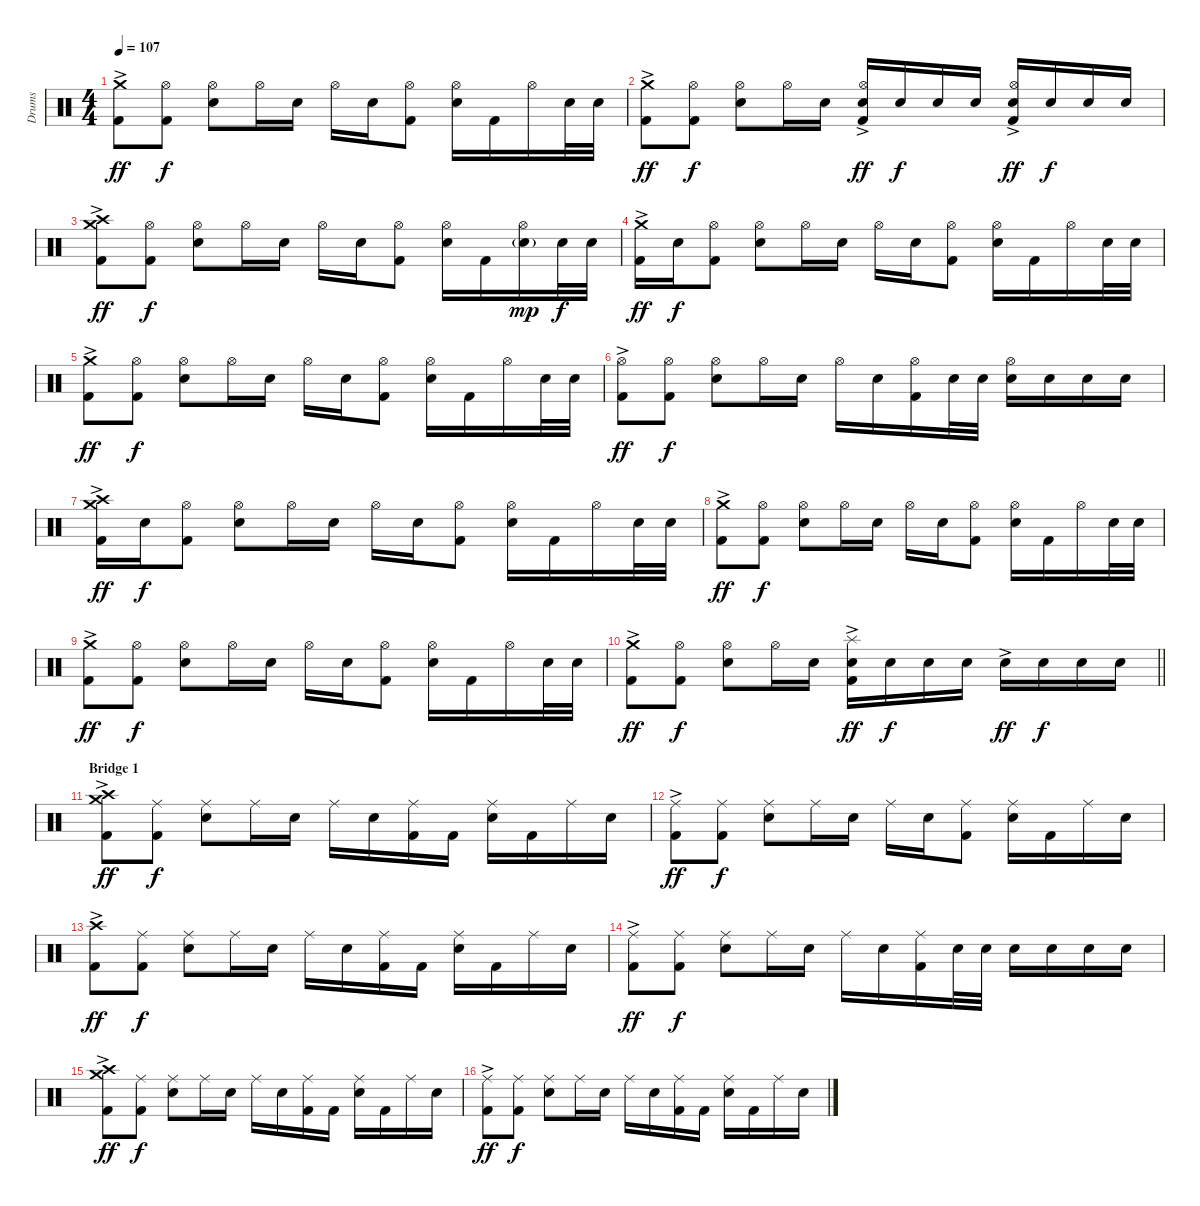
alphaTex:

\track ("Drums" "Drums") {instrument percussion}
\staff {score}
\articulation defaults
\ts (4 4)
\tempo 107
\clef neutral
\ks c
("Crash medium (hit)" "Kick (hit) 2"{ac}).8{dy ff} ("Hi-Hat (open)" "Kick (hit) 2").8{dy f} ("Hi-Hat (open)" "Electric Snare (hit)").8 "Hi-Hat (open)".16 "Electric Snare (hit)".16 "Hi-Hat (open)".16 "Electric Snare (hit)".16 ("Hi-Hat (open)" "Kick (hit) 2").8 ("Hi-Hat (open)" "Electric Snare (hit)").16 "Kick (hit) 2".16 "Hi-Hat (open)".16 "Electric Snare (hit)".32 "Electric Snare (hit)".32 |
("Crash medium (hit)" "Kick (hit) 2"{ac}).8{dy ff} ("Hi-Hat (open)" "Kick (hit) 2").8{dy f} ("Hi-Hat (open)" "Electric Snare (hit)").8 "Hi-Hat (open)".16 "Electric Snare (hit)".16 ("Hi-Hat (open)" "Electric Snare (hit)"{ac} "Kick (hit) 2").16{dy ff} "Electric Snare (hit)".16{dy f} "Electric Snare (hit)".16 "Electric Snare (hit)".16 ("Hi-Hat (open)" "Electric Snare (hit)"{ac} "Kick (hit) 2").16{dy ff} "Electric Snare (hit)".16{dy f} "Electric Snare (hit)".16 "Electric Snare (hit)".16 |
("Crash high (hit)" "Crash medium (hit)" "Kick (hit) 2"{ac}).8{dy ff} ("Hi-Hat (open)" "Kick (hit) 2").8{dy f} ("Hi-Hat (open)" "Electric Snare (hit)").8 "Hi-Hat (open)".16 "Electric Snare (hit)".16 "Hi-Hat (open)".16 "Electric Snare (hit)".16 ("Hi-Hat (open)" "Kick (hit) 2").8 ("Hi-Hat (open)" "Electric Snare (hit)").16 "Kick (hit) 2".16 ("Hi-Hat (open)" "Electric Snare (hit)"{g}).16{dy mp} "Electric Snare (hit)".32{dy f} "Electric Snare (hit)".32 |
("Crash medium (hit)" "Kick (hit) 2"{ac}).16{dy ff} "Electric Snare (hit)".16{dy f} ("Hi-Hat (open)" "Kick (hit) 2").8 ("Hi-Hat (open)" "Electric Snare (hit)").8 "Hi-Hat (open)".16 "Electric Snare (hit)".16 "Hi-Hat (open)".16 "Electric Snare (hit)".16 ("Hi-Hat (open)" "Kick (hit) 2").8 ("Hi-Hat (open)" "Electric Snare (hit)").16 "Kick (hit) 2".16 "Hi-Hat (open)".16 "Electric Snare (hit)".32 "Electric Snare (hit)".32 |
("Crash medium (hit)" "Kick (hit) 2"{ac}).8{dy ff} ("Hi-Hat (open)" "Kick (hit) 2").8{dy f} ("Hi-Hat (open)" "Electric Snare (hit)").8 "Hi-Hat (open)".16 "Electric Snare (hit)".16 "Hi-Hat (open)".16 "Electric Snare (hit)".16 ("Hi-Hat (open)" "Kick (hit) 2").8 ("Hi-Hat (open)" "Electric Snare (hit)").16 "Kick (hit) 2".16 "Hi-Hat (open)".16 "Electric Snare (hit)".32 "Electric Snare (hit)".32 |
("Hi-Hat (open)" "Kick (hit) 2"{ac}).8{dy ff} ("Hi-Hat (open)" "Kick (hit) 2").8{dy f} ("Hi-Hat (open)" "Electric Snare (hit)").8 "Hi-Hat (open)".16 "Electric Snare (hit)".16 "Hi-Hat (open)".16 "Electric Snare (hit)".16 ("Hi-Hat (open)" "Kick (hit) 2").16 "Electric Snare (hit)".32 "Electric Snare (hit)".32 ("Hi-Hat (open)" "Electric Snare (hit)").16 "Electric Snare (hit)".16 "Electric Snare (hit)".16 "Electric Snare (hit)".16 |
("Crash high (hit)" "Crash medium (hit)" "Kick (hit) 2"{ac}).16{dy ff} "Electric Snare (hit)".16{dy f} ("Hi-Hat (open)" "Kick (hit) 2").8 ("Hi-Hat (open)" "Electric Snare (hit)").8 "Hi-Hat (open)".16 "Electric Snare (hit)".16 "Hi-Hat (open)".16 "Electric Snare (hit)".16 ("Hi-Hat (open)" "Kick (hit) 2").8 ("Hi-Hat (open)" "Electric Snare (hit)").16 "Kick (hit) 2".16 "Hi-Hat (open)".16 "Electric Snare (hit)".32 "Electric Snare (hit)".32 |
("Crash medium (hit)" "Kick (hit) 2"{ac}).8{dy ff} ("Hi-Hat (open)" "Kick (hit) 2").8{dy f} ("Hi-Hat (open)" "Electric Snare (hit)").8 "Hi-Hat (open)".16 "Electric Snare (hit)".16 "Hi-Hat (open)".16 "Electric Snare (hit)".16 ("Hi-Hat (open)" "Kick (hit) 2").8 ("Hi-Hat (open)" "Electric Snare (hit)").16 "Kick (hit) 2".16 "Hi-Hat (open)".16 "Electric Snare (hit)".32 "Electric Snare (hit)".32 |
("Crash medium (hit)" "Kick (hit) 2"{ac}).8{dy ff} ("Hi-Hat (open)" "Kick (hit) 2").8{dy f} ("Hi-Hat (open)" "Electric Snare (hit)").8 "Hi-Hat (open)".16 "Electric Snare (hit)".16 "Hi-Hat (open)".16 "Electric Snare (hit)".16 ("Hi-Hat (open)" "Kick (hit) 2").8 ("Hi-Hat (open)" "Electric Snare (hit)").16 "Kick (hit) 2".16 "Hi-Hat (open)".16 "Electric Snare (hit)".32 "Electric Snare (hit)".32 |
\barLineRight lightlight
("Crash medium (hit)" "Kick (hit) 2"{ac}).8{dy ff} ("Hi-Hat (open)" "Kick (hit) 2").8{dy f} ("Hi-Hat (open)" "Electric Snare (hit)").8 "Hi-Hat (open)".16 "Electric Snare (hit)".16 ("Splash (hit)" "Electric Snare (hit)"{ac} "Kick (hit) 2").16{dy ff} "Electric Snare (hit)".16{dy f} "Electric Snare (hit)".16 "Electric Snare (hit)".16 "Electric Snare (hit)"{ac}.16{dy ff} "Electric Snare (hit)".16{dy f} "Electric Snare (hit)".16 "Electric Snare (hit)".16 |
\section ("" "Bridge 1")
("Crash high (hit)" "Crash medium (hit)" "Kick (hit) 2"{ac}).8{dy ff} ("Ride (middle)" "Kick (hit) 2").8{dy f} ("Ride (middle)" "Electric Snare (hit)").8 "Ride (middle)".16 "Electric Snare (hit)".16 "Ride (middle)".16 "Electric Snare (hit)".16 ("Ride (middle)" "Kick (hit) 2").16 "Kick (hit) 2".16 ("Ride (middle)" "Electric Snare (hit)").16 "Kick (hit) 2".16 "Ride (middle)".16 "Electric Snare (hit)".16 |
("Ride (middle)" "Kick (hit) 2"{ac}).8{dy ff} ("Ride (middle)" "Kick (hit) 2").8{dy f} ("Ride (middle)" "Electric Snare (hit)").8 "Ride (middle)".16 "Electric Snare (hit)".16 "Ride (middle)".16 "Electric Snare (hit)".16 ("Ride (middle)" "Kick (hit) 2").8 ("Ride (middle)" "Electric Snare (hit)").16 "Kick (hit) 2".16 "Ride (middle)".16 "Electric Snare (hit)".16 |
("Crash high (hit)" "Kick (hit) 2"{ac}).8{dy ff} ("Ride (middle)" "Kick (hit) 2").8{dy f} ("Ride (middle)" "Electric Snare (hit)").8 "Ride (middle)".16 "Electric Snare (hit)".16 "Ride (middle)".16 "Electric Snare (hit)".16 ("Ride (middle)" "Kick (hit) 2").16 "Kick (hit) 2".16 ("Ride (middle)" "Electric Snare (hit)").16 "Kick (hit) 2".16 "Ride (middle)".16 "Electric Snare (hit)".16 |
("Ride (middle)" "Kick (hit) 2"{ac}).8{dy ff} ("Ride (middle)" "Kick (hit) 2").8{dy f} ("Ride (middle)" "Electric Snare (hit)").8 "Ride (middle)".16 "Electric Snare (hit)".16 "Ride (middle)".16 "Electric Snare (hit)".16 ("Ride (middle)" "Kick (hit) 2").16 "Electric Snare (hit)".32 "Electric Snare (hit)".32 "Electric Snare (hit)".16 "Electric Snare (hit)".16 "Electric Snare (hit)".16 "Electric Snare (hit)".16 |
("Crash high (hit)" "Crash medium (hit)" "Kick (hit) 2"{ac}).8{dy ff} ("Ride (middle)" "Kick (hit) 2").8{dy f} ("Ride (middle)" "Electric Snare (hit)").8 "Ride (middle)".16 "Electric Snare (hit)".16 "Ride (middle)".16 "Electric Snare (hit)".16 ("Ride (middle)" "Kick (hit) 2").16 "Kick (hit) 2".16 ("Ride (middle)" "Electric Snare (hit)").16 "Kick (hit) 2".16 "Ride (middle)".16 "Electric Snare (hit)".16 |
("Ride (middle)" "Kick (hit) 2"{ac}).8{dy ff} ("Ride (middle)" "Kick (hit) 2").8{dy f} ("Ride (middle)" "Electric Snare (hit)").8 "Ride (middle)".16 "Electric Snare (hit)".16 "Ride (middle)".16 "Electric Snare (hit)".16 ("Ride (middle)" "Kick (hit) 2").16 "Kick (hit) 2".16 ("Ride (middle)" "Electric Snare (hit)").16 "Kick (hit) 2".16 "Ride (middle)".16 "Electric Snare (hit)".16
